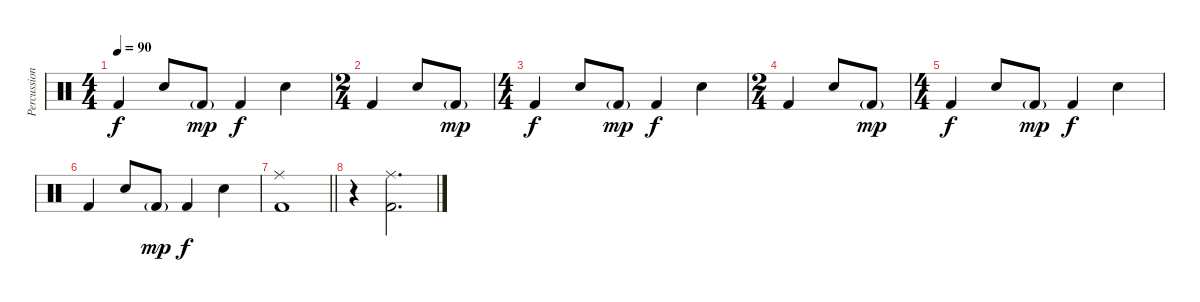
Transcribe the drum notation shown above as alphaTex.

\track ("Percussion" "Percussion") {instrument percussion}
\staff {score}
\articulation defaults
\ts (4 4)
\tempo 90
\clef neutral
\ks c "Kick (hit) 2".4{dy f} "Snare (hit) 2".8 "Kick (hit) 2"{g}.8{dy mp} "Kick (hit) 2".4{dy f} "Snare (hit) 2".4
|
\ts (2 4)
"Kick (hit) 2".4 "Snare (hit) 2".8 "Kick (hit) 2"{g}.8{dy mp} |
\ts (4 4)
"Kick (hit) 2".4{dy f} "Snare (hit) 2".8 "Kick (hit) 2"{g}.8{dy mp} "Kick (hit) 2".4{dy f} "Snare (hit) 2".4 |
\ts (2 4)
"Kick (hit) 2".4 "Snare (hit) 2".8 "Kick (hit) 2"{g}.8{dy mp} |
\ts (4 4)
"Kick (hit) 2".4{dy f} "Snare (hit) 2".8 "Kick (hit) 2"{g}.8{dy mp} "Kick (hit) 2".4{dy f} "Snare (hit) 2".4 |
"Kick (hit) 2".4 "Snare (hit) 2".8 "Kick (hit) 2"{g}.8{dy mp} "Kick (hit) 2".4{dy f} "Snare (hit) 2".4 |
\barLineRight lightlight
("Ride (middle)" "Kick (hit) 2").1 |
r.4 ("Ride (middle)" "Kick (hit) 2").2{d}
